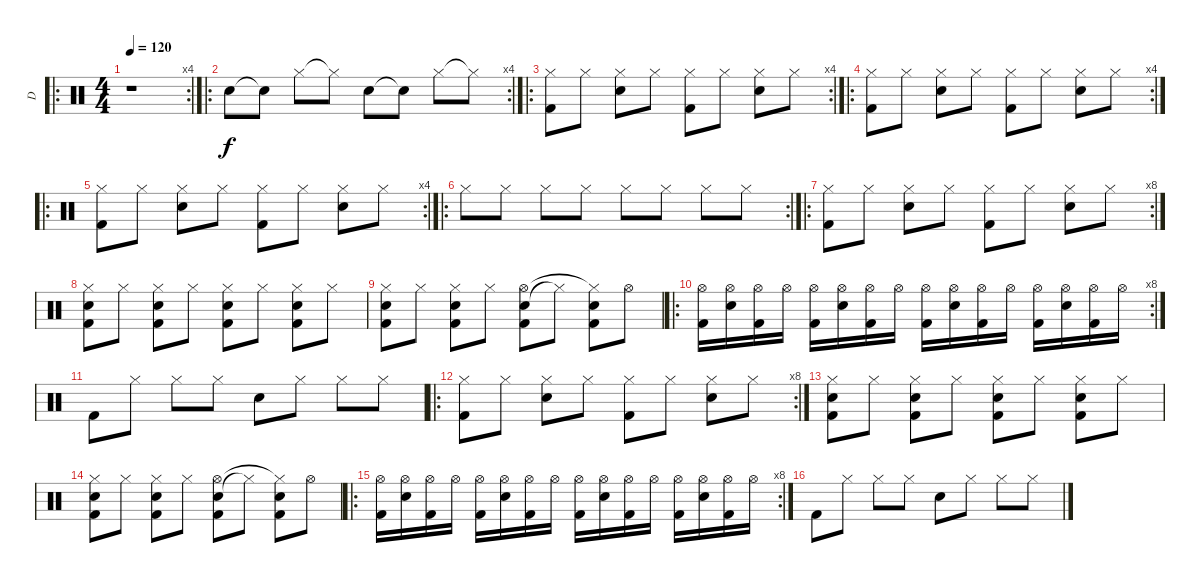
\track ("D" "D") {instrument percussion}
\staff {score}
\articulation defaults
\ro
\rc 4
\ts (4 4)
\tempo 120
\clef neutral
\ks c
r.1{dy f} |
\ro
\rc 4 "Electric Snare (hit)".8 "Snare (hit)"{t}.8 "Hi-Hat (closed)".8 "Hi-Hat (closed)"{t}.8 "Electric Snare (hit)".8 "Snare (hit)"{t}.8 "Hi-Hat (closed)".8 "Hi-Hat (closed)"{t}.8
|
\ro
\rc 4
("Hi-Hat (closed)" "Kick (hit) 2").8 "Hi-Hat (closed)".8 ("Electric Snare (hit)" "Hi-Hat (closed)").8 "Hi-Hat (closed)".8 ("Hi-Hat (closed)" "Kick (hit) 2").8 "Hi-Hat (closed)".8 ("Electric Snare (hit)" "Hi-Hat (closed)").8 "Hi-Hat (closed)".8 |
\ro
\rc 4
("Hi-Hat (closed)" "Kick (hit) 2").8 "Hi-Hat (closed)".8 ("Electric Snare (hit)" "Hi-Hat (closed)").8 "Hi-Hat (closed)".8 ("Hi-Hat (closed)" "Kick (hit) 2").8 "Hi-Hat (closed)".8 ("Electric Snare (hit)" "Hi-Hat (closed)").8 "Hi-Hat (closed)".8 |
\ro
\rc 4
("Hi-Hat (closed)" "Kick (hit) 2").8 "Hi-Hat (closed)".8 ("Electric Snare (hit)" "Hi-Hat (closed)").8 "Hi-Hat (closed)".8 ("Hi-Hat (closed)" "Kick (hit) 2").8 "Hi-Hat (closed)".8 ("Electric Snare (hit)" "Hi-Hat (closed)").8 "Hi-Hat (closed)".8 |
\ro
\rc 2 "Hi-Hat (closed)".8 "Hi-Hat (closed)".8 "Hi-Hat (closed)".8 "Hi-Hat (closed)".8 "Hi-Hat (closed)".8 "Hi-Hat (closed)".8 "Hi-Hat (closed)".8 "Hi-Hat (closed)".8
|
\ro
\rc 8
("Hi-Hat (closed)" "Kick (hit) 2").8 "Hi-Hat (closed)".8 ("Electric Snare (hit)" "Hi-Hat (closed)").8 "Hi-Hat (closed)".8 ("Hi-Hat (closed)" "Kick (hit) 2").8 "Hi-Hat (closed)".8 ("Electric Snare (hit)" "Hi-Hat (closed)").8 "Hi-Hat (closed)".8 |
("Electric Snare (hit)" "Hi-Hat (closed)" "Kick (hit) 2").8 "Hi-Hat (closed)".8 ("Electric Snare (hit)" "Hi-Hat (closed)" "Kick (hit) 2").8 "Hi-Hat (closed)".8 ("Electric Snare (hit)" "Hi-Hat (closed)" "Kick (hit) 2").8 "Hi-Hat (closed)".8 ("Electric Snare (hit)" "Hi-Hat (closed)" "Kick (hit) 2").8 "Hi-Hat (closed)".8 |
("Electric Snare (hit)" "Hi-Hat (closed)" "Kick (hit) 2").8 "Hi-Hat (closed)".8 ("Electric Snare (hit)" "Hi-Hat (closed)" "Kick (hit) 2").8 "Hi-Hat (closed)".8 ("Electric Snare (hit)" "Hi-Hat (open)" "Kick (hit) 2").8 "Hi-Hat (closed)"{t}.8 ("Electric Snare (hit)" "Hi-Hat (closed)"{t} "Kick (hit) 2").8 "Hi-Hat (open)".8 |
\ro
\rc 8
("Hi-Hat (open)" "Kick (hit) 2").16 ("Electric Snare (hit)" "Hi-Hat (open)").16 ("Hi-Hat (open)" "Kick (hit) 2").16 "Hi-Hat (open)".16 ("Hi-Hat (open)" "Kick (hit) 2").16 ("Electric Snare (hit)" "Hi-Hat (open)").16 ("Hi-Hat (open)" "Kick (hit) 2").16 "Hi-Hat (open)".16 ("Hi-Hat (open)" "Kick (hit) 2").16 ("Electric Snare (hit)" "Hi-Hat (open)").16 ("Hi-Hat (open)" "Kick (hit) 2").16 "Hi-Hat (open)".16 ("Hi-Hat (open)" "Kick (hit) 2").16 ("Electric Snare (hit)" "Hi-Hat (open)").16 ("Hi-Hat (open)" "Kick (hit) 2").16 "Hi-Hat (open)".16 |
"Kick (hit) 2".8 "Hi-Hat (closed)".8 "Hi-Hat (closed)".8 "Hi-Hat (closed)".8 "Electric Snare (hit)".8 "Hi-Hat (closed)".8 "Hi-Hat (closed)".8 "Hi-Hat (closed)".8 |
\ro
\rc 8
("Hi-Hat (closed)" "Kick (hit) 2").8 "Hi-Hat (closed)".8 ("Electric Snare (hit)" "Hi-Hat (closed)").8 "Hi-Hat (closed)".8 ("Hi-Hat (closed)" "Kick (hit) 2").8 "Hi-Hat (closed)".8 ("Electric Snare (hit)" "Hi-Hat (closed)").8 "Hi-Hat (closed)".8 |
("Electric Snare (hit)" "Hi-Hat (closed)" "Kick (hit) 2").8 "Hi-Hat (closed)".8 ("Electric Snare (hit)" "Hi-Hat (closed)" "Kick (hit) 2").8 "Hi-Hat (closed)".8 ("Electric Snare (hit)" "Hi-Hat (closed)" "Kick (hit) 2").8 "Hi-Hat (closed)".8 ("Electric Snare (hit)" "Hi-Hat (closed)" "Kick (hit) 2").8 "Hi-Hat (closed)".8 |
("Electric Snare (hit)" "Hi-Hat (closed)" "Kick (hit) 2").8 "Hi-Hat (closed)".8 ("Electric Snare (hit)" "Hi-Hat (closed)" "Kick (hit) 2").8 "Hi-Hat (closed)".8 ("Electric Snare (hit)" "Hi-Hat (open)" "Kick (hit) 2").8 "Hi-Hat (closed)"{t}.8 ("Electric Snare (hit)" "Hi-Hat (closed)"{t} "Kick (hit) 2").8 "Hi-Hat (open)".8 |
\ro
\rc 8
("Hi-Hat (open)" "Kick (hit) 2").16 ("Electric Snare (hit)" "Hi-Hat (open)").16 ("Hi-Hat (open)" "Kick (hit) 2").16 "Hi-Hat (open)".16 ("Hi-Hat (open)" "Kick (hit) 2").16 ("Electric Snare (hit)" "Hi-Hat (open)").16 ("Hi-Hat (open)" "Kick (hit) 2").16 "Hi-Hat (open)".16 ("Hi-Hat (open)" "Kick (hit) 2").16 ("Electric Snare (hit)" "Hi-Hat (open)").16 ("Hi-Hat (open)" "Kick (hit) 2").16 "Hi-Hat (open)".16 ("Hi-Hat (open)" "Kick (hit) 2").16 ("Electric Snare (hit)" "Hi-Hat (open)").16 ("Hi-Hat (open)" "Kick (hit) 2").16 "Hi-Hat (open)".16 |
"Kick (hit) 2".8 "Hi-Hat (closed)".8 "Hi-Hat (closed)".8 "Hi-Hat (closed)".8 "Electric Snare (hit)".8 "Hi-Hat (closed)".8 "Hi-Hat (closed)".8 "Hi-Hat (closed)".8
